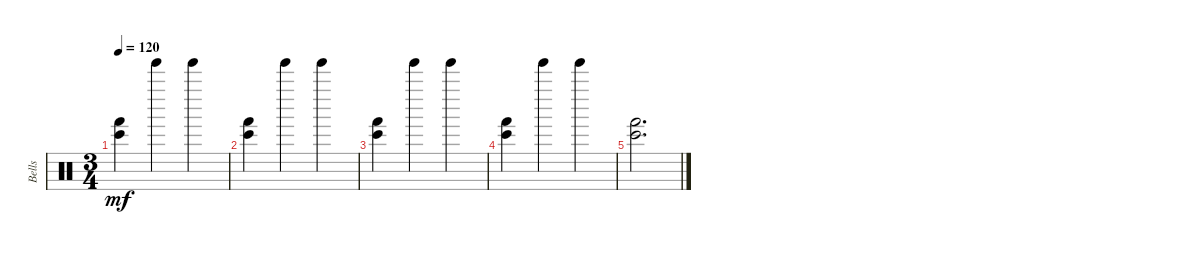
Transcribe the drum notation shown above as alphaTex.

\track ("Bells" "Bells") {instrument percussion}
\staff {score}
\articulation defaults
\ts (3 4)
\tempo 120
\clef neutral
\ks c
("Hand (hit)" "Bongo High (hit)").4{dy mf} "Tinkle Bell (hit)".4 "Tinkle Bell (hit)".4 |
("Hand (hit)" "Bongo High (hit)").4 "Tinkle Bell (hit)".4 "Tinkle Bell (hit)".4 |
("Hand (hit)" "Bongo High (hit)").4 "Tinkle Bell (hit)".4 "Tinkle Bell (hit)".4 |
("Hand (hit)" "Bongo High (hit)").4 "Tinkle Bell (hit)".4 "Tinkle Bell (hit)".4 |
("Hand (hit)" "Bongo High (hit)").2{d}
